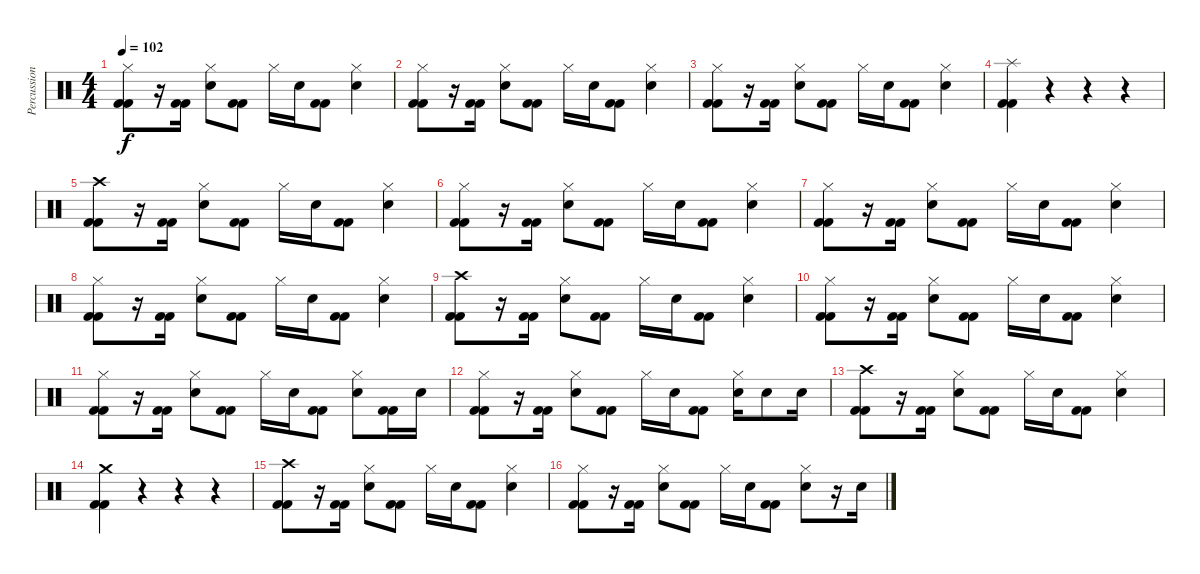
\track ("Percussions" "Percussion") {instrument percussion}
\staff {score}
\articulation defaults
\ts (4 4)
\tempo 102
\clef neutral
\ks c
("Hi-Hat (closed)" "Kick (hit) 2" "Kick (hit) 2").8{dy f} r.16 ("Kick (hit) 2" "Kick (hit) 2").16 ("Hi-Hat (closed)" "Electric Snare (hit)").8 ("Kick (hit) 2" "Kick (hit) 2").8 "Hi-Hat (closed)".16 "Electric Snare (hit)".16 ("Kick (hit) 2" "Kick (hit) 2").8 ("Hi-Hat (closed)" "Electric Snare (hit)").4 |
("Hi-Hat (closed)" "Kick (hit) 2" "Kick (hit) 2").8 r.16 ("Kick (hit) 2" "Kick (hit) 2").16 ("Hi-Hat (closed)" "Electric Snare (hit)").8 ("Kick (hit) 2" "Kick (hit) 2").8 "Hi-Hat (closed)".16 "Electric Snare (hit)".16 ("Kick (hit) 2" "Kick (hit) 2").8 ("Hi-Hat (closed)" "Electric Snare (hit)").4 |
("Hi-Hat (closed)" "Kick (hit) 2" "Kick (hit) 2").8 r.16 ("Kick (hit) 2" "Kick (hit) 2").16 ("Hi-Hat (closed)" "Electric Snare (hit)").8 ("Kick (hit) 2" "Kick (hit) 2").8 "Hi-Hat (closed)".16 "Electric Snare (hit)".16 ("Kick (hit) 2" "Kick (hit) 2").8 ("Hi-Hat (closed)" "Electric Snare (hit)").4 |
("Splash (hit)" "Kick (hit) 2" "Kick (hit) 2").4 r.4 r.4 r.4 |
("Crash high (hit)" "Kick (hit) 2" "Kick (hit) 2").8 r.16 ("Kick (hit) 2" "Kick (hit) 2").16 ("Hi-Hat (closed)" "Electric Snare (hit)").8 ("Kick (hit) 2" "Kick (hit) 2").8 "Hi-Hat (closed)".16 "Electric Snare (hit)".16 ("Kick (hit) 2" "Kick (hit) 2").8 ("Hi-Hat (closed)" "Electric Snare (hit)").4 |
("Hi-Hat (closed)" "Kick (hit) 2" "Kick (hit) 2").8 r.16 ("Kick (hit) 2" "Kick (hit) 2").16 ("Hi-Hat (closed)" "Electric Snare (hit)").8 ("Kick (hit) 2" "Kick (hit) 2").8 "Hi-Hat (closed)".16 "Electric Snare (hit)".16 ("Kick (hit) 2" "Kick (hit) 2").8 ("Hi-Hat (closed)" "Electric Snare (hit)").4 |
("Hi-Hat (closed)" "Kick (hit) 2" "Kick (hit) 2").8 r.16 ("Kick (hit) 2" "Kick (hit) 2").16 ("Hi-Hat (closed)" "Electric Snare (hit)").8 ("Kick (hit) 2" "Kick (hit) 2").8 "Hi-Hat (closed)".16 "Electric Snare (hit)".16 ("Kick (hit) 2" "Kick (hit) 2").8 ("Hi-Hat (closed)" "Electric Snare (hit)").4 |
("Hi-Hat (closed)" "Kick (hit) 2" "Kick (hit) 2").8 r.16 ("Kick (hit) 2" "Kick (hit) 2").16 ("Hi-Hat (closed)" "Electric Snare (hit)").8 ("Kick (hit) 2" "Kick (hit) 2").8 "Hi-Hat (closed)".16 "Electric Snare (hit)".16 ("Kick (hit) 2" "Kick (hit) 2").8 ("Hi-Hat (closed)" "Electric Snare (hit)").4 |
("Crash high (hit)" "Kick (hit) 2" "Kick (hit) 2").8 r.16 ("Kick (hit) 2" "Kick (hit) 2").16 ("Hi-Hat (closed)" "Electric Snare (hit)").8 ("Kick (hit) 2" "Kick (hit) 2").8 "Hi-Hat (closed)".16 "Electric Snare (hit)".16 ("Kick (hit) 2" "Kick (hit) 2").8 ("Hi-Hat (closed)" "Electric Snare (hit)").4 |
("Hi-Hat (closed)" "Kick (hit) 2" "Kick (hit) 2").8 r.16 ("Kick (hit) 2" "Kick (hit) 2").16 ("Hi-Hat (closed)" "Electric Snare (hit)").8 ("Kick (hit) 2" "Kick (hit) 2").8 "Hi-Hat (closed)".16 "Electric Snare (hit)".16 ("Kick (hit) 2" "Kick (hit) 2").8 ("Hi-Hat (closed)" "Electric Snare (hit)").4 |
("Hi-Hat (closed)" "Kick (hit) 2" "Kick (hit) 2").8 r.16 ("Kick (hit) 2" "Kick (hit) 2").16 ("Hi-Hat (closed)" "Electric Snare (hit)").8 ("Kick (hit) 2" "Kick (hit) 2").8 "Hi-Hat (closed)".16 "Electric Snare (hit)".16 ("Kick (hit) 2" "Kick (hit) 2").8 ("Hi-Hat (closed)" "Electric Snare (hit)").8 ("Kick (hit) 2" "Kick (hit) 2").16 "Electric Snare (hit)".16 |
("Hi-Hat (closed)" "Kick (hit) 2" "Kick (hit) 2").8 r.16 ("Kick (hit) 2" "Kick (hit) 2").16 ("Hi-Hat (closed)" "Electric Snare (hit)").8 ("Kick (hit) 2" "Kick (hit) 2").8 "Hi-Hat (closed)".16 "Electric Snare (hit)".16 ("Kick (hit) 2" "Kick (hit) 2").8 ("Hi-Hat (closed)" "Electric Snare (hit)").16 "Electric Snare (hit)".8 "Electric Snare (hit)".16 |
("Crash high (hit)" "Kick (hit) 2" "Kick (hit) 2").8 r.16 ("Kick (hit) 2" "Kick (hit) 2").16 ("Hi-Hat (closed)" "Electric Snare (hit)").8 ("Kick (hit) 2" "Kick (hit) 2").8 "Hi-Hat (closed)".16 "Electric Snare (hit)".16 ("Kick (hit) 2" "Kick (hit) 2").8 ("Hi-Hat (closed)" "Electric Snare (hit)").4 |
("Crash medium (hit)" "Kick (hit) 2" "Kick (hit) 2").4 r.4 r.4 r.4 |
("Crash high (hit)" "Kick (hit) 2" "Kick (hit) 2").8 r.16 ("Kick (hit) 2" "Kick (hit) 2").16 ("Hi-Hat (closed)" "Electric Snare (hit)").8 ("Kick (hit) 2" "Kick (hit) 2").8 "Hi-Hat (closed)".16 "Electric Snare (hit)".16 ("Kick (hit) 2" "Kick (hit) 2").8 ("Hi-Hat (closed)" "Electric Snare (hit)").4 |
("Hi-Hat (closed)" "Kick (hit) 2" "Kick (hit) 2").8 r.16 ("Kick (hit) 2" "Kick (hit) 2").16 ("Hi-Hat (closed)" "Electric Snare (hit)").8 ("Kick (hit) 2" "Kick (hit) 2").8 "Hi-Hat (closed)".16 "Electric Snare (hit)".16 ("Kick (hit) 2" "Kick (hit) 2").8 ("Hi-Hat (closed)" "Electric Snare (hit)").8 r.16 "Electric Snare (hit)".16
